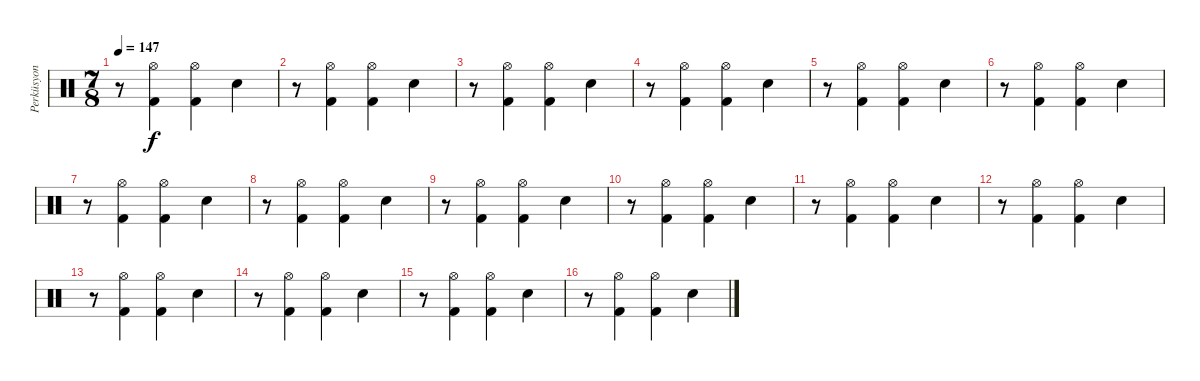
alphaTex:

\track ("Perküsyon" "Perküsyon") {instrument percussion}
\staff {score}
\articulation defaults
\ts (7 8)
\tempo 147
\clef neutral
\ks c
r.8{dy f} ("Hi-Hat (open)" "Kick (hit) 2").4 ("Hi-Hat (open)" "Kick (hit) 2").4 "Electric Snare (hit)".4 |
r.8 ("Hi-Hat (open)" "Kick (hit) 2").4 ("Hi-Hat (open)" "Kick (hit) 2").4 "Electric Snare (hit)".4 |
r.8 ("Hi-Hat (open)" "Kick (hit) 2").4 ("Hi-Hat (open)" "Kick (hit) 2").4 "Electric Snare (hit)".4 |
r.8 ("Hi-Hat (open)" "Kick (hit) 2").4 ("Hi-Hat (open)" "Kick (hit) 2").4 "Electric Snare (hit)".4 |
r.8 ("Hi-Hat (open)" "Kick (hit) 2").4 ("Hi-Hat (open)" "Kick (hit) 2").4 "Electric Snare (hit)".4 |
r.8 ("Hi-Hat (open)" "Kick (hit) 2").4 ("Hi-Hat (open)" "Kick (hit) 2").4 "Electric Snare (hit)".4 |
r.8 ("Hi-Hat (open)" "Kick (hit) 2").4 ("Hi-Hat (open)" "Kick (hit) 2").4 "Electric Snare (hit)".4 |
r.8 ("Hi-Hat (open)" "Kick (hit) 2").4 ("Hi-Hat (open)" "Kick (hit) 2").4 "Electric Snare (hit)".4 |
r.8 ("Hi-Hat (open)" "Kick (hit) 2").4 ("Hi-Hat (open)" "Kick (hit) 2").4 "Electric Snare (hit)".4 |
r.8 ("Hi-Hat (open)" "Kick (hit) 2").4 ("Hi-Hat (open)" "Kick (hit) 2").4 "Electric Snare (hit)".4 |
r.8 ("Hi-Hat (open)" "Kick (hit) 2").4 ("Hi-Hat (open)" "Kick (hit) 2").4 "Electric Snare (hit)".4 |
r.8 ("Hi-Hat (open)" "Kick (hit) 2").4 ("Hi-Hat (open)" "Kick (hit) 2").4 "Electric Snare (hit)".4 |
r.8 ("Hi-Hat (open)" "Kick (hit) 2").4 ("Hi-Hat (open)" "Kick (hit) 2").4 "Electric Snare (hit)".4 |
r.8 ("Hi-Hat (open)" "Kick (hit) 2").4 ("Hi-Hat (open)" "Kick (hit) 2").4 "Electric Snare (hit)".4 |
r.8 ("Hi-Hat (open)" "Kick (hit) 2").4 ("Hi-Hat (open)" "Kick (hit) 2").4 "Electric Snare (hit)".4 |
r.8 ("Hi-Hat (open)" "Kick (hit) 2").4 ("Hi-Hat (open)" "Kick (hit) 2").4 "Electric Snare (hit)".4
